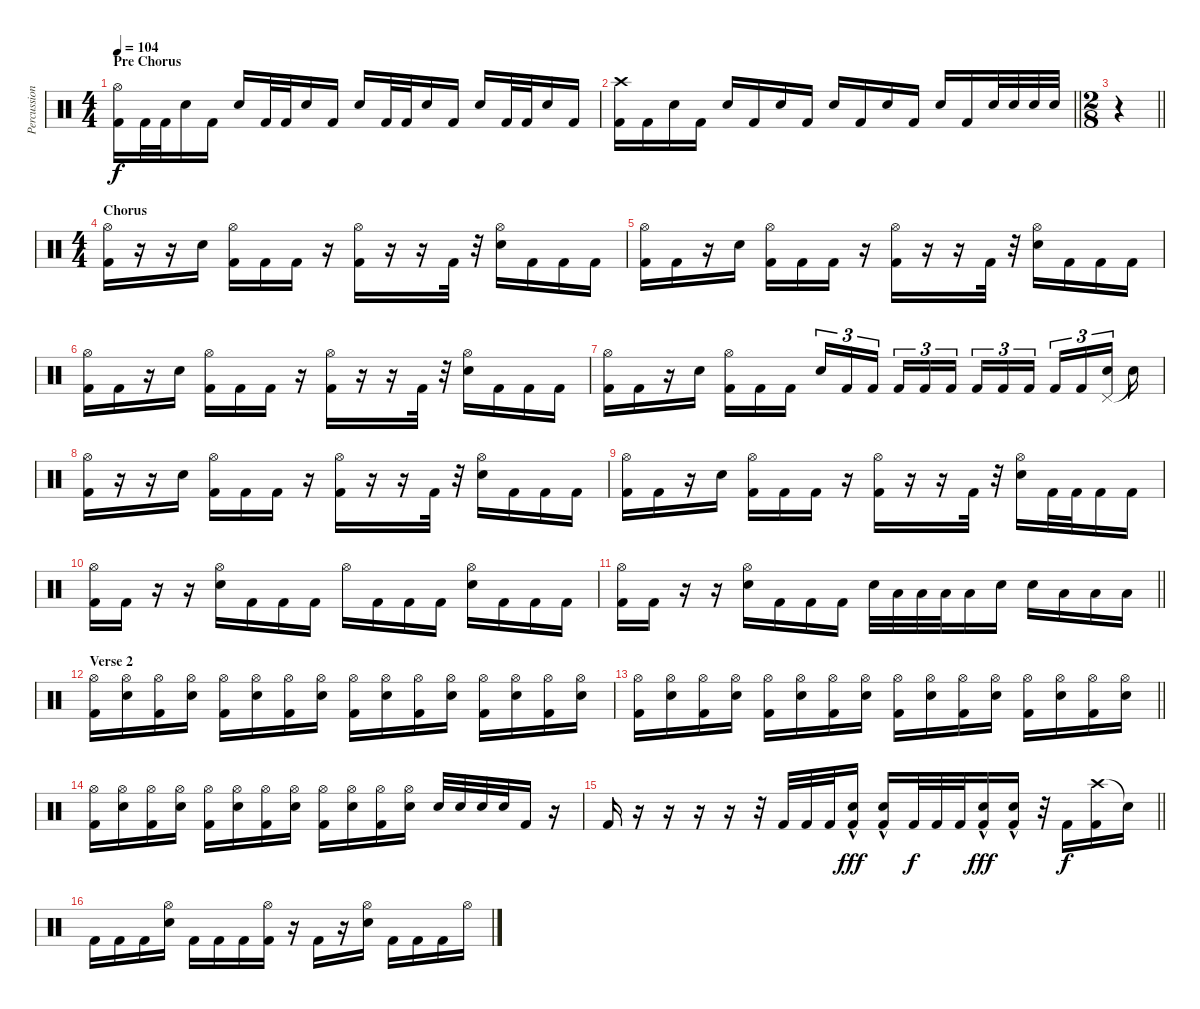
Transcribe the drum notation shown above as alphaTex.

\track ("Percussion" "Percussion") {instrument percussion}
\staff {score}
\articulation defaults
\ts (4 4)
\section ("" "Pre Chorus")
\tempo 104
\clef neutral
\ks c
("Hi-Hat (open)" "Kick (hit) 2").16{dy f} "Kick (hit) 2".32 "Kick (hit) 2".32 "Snare (hit) 2".16 "Kick (hit) 2".16 "Snare (hit) 2".16 "Kick (hit) 2".32 "Kick (hit) 2".32 "Snare (hit) 2".16 "Kick (hit) 2".16 "Snare (hit) 2".16 "Kick (hit) 2".32 "Kick (hit) 2".32 "Snare (hit) 2".16 "Kick (hit) 2".16 "Snare (hit) 2".16 "Kick (hit) 2".32 "Kick (hit) 2".32 "Snare (hit) 2".16 "Kick (hit) 2".16 |
\barLineRight lightlight
("Crash high (hit)" "Kick (hit) 2").16 "Kick (hit) 2".16 "Snare (hit) 2".16 "Kick (hit) 2".16 "Snare (hit) 2".16 "Kick (hit) 2".16 "Snare (hit) 2".16 "Kick (hit) 2".16 "Snare (hit) 2".16 "Kick (hit) 2".16 "Snare (hit) 2".16 "Kick (hit) 2".16 "Snare (hit) 2".16 "Kick (hit) 2".16 "Snare (hit) 2".32 "Snare (hit) 2".32 "Snare (hit) 2".32 "Snare (hit) 2".32 |
\ts (2 8)
\barLineRight lightlight
r.4 |
\ts (4 4)
\section ("" "Chorus")
("Hi-Hat (open)" "Kick (hit) 2").16 r.16 r.16 "Snare (hit) 2".16 ("Hi-Hat (open)" "Kick (hit) 2").16 "Kick (hit) 2".16 "Kick (hit) 2".16 r.16 ("Hi-Hat (open)" "Kick (hit) 2").16 r.16 r.16 "Kick (hit) 2".32 r.32 ("Hi-Hat (open)" "Snare (hit) 2").16 "Kick (hit) 2".16 "Kick (hit) 2".16 "Kick (hit) 2".16 |
("Hi-Hat (open)" "Kick (hit) 2").16 "Kick (hit) 2".16 r.16 "Snare (hit) 2".16 ("Hi-Hat (open)" "Kick (hit) 2").16 "Kick (hit) 2".16 "Kick (hit) 2".16 r.16 ("Hi-Hat (open)" "Kick (hit) 2").16 r.16 r.16 "Kick (hit) 2".32 r.32 ("Hi-Hat (open)" "Snare (hit) 2").16 "Kick (hit) 2".16 "Kick (hit) 2".16 "Kick (hit) 2".16 |
("Hi-Hat (open)" "Kick (hit) 2").16 "Kick (hit) 2".16 r.16 "Snare (hit) 2".16 ("Hi-Hat (open)" "Kick (hit) 2").16 "Kick (hit) 2".16 "Kick (hit) 2".16 r.16 ("Hi-Hat (open)" "Kick (hit) 2").16 r.16 r.16 "Kick (hit) 2".32 r.32 ("Hi-Hat (open)" "Snare (hit) 2").16 "Kick (hit) 2".16 "Kick (hit) 2".16 "Kick (hit) 2".16 |
("Hi-Hat (open)" "Kick (hit) 2").16 "Kick (hit) 2".16 r.16 "Snare (hit) 2".16 ("Hi-Hat (open)" "Kick (hit) 2").16 "Kick (hit) 2".16 "Kick (hit) 2".16{beam splitsecondary} "Snare (hit) 2".16{tu (3 2)} "Kick (hit) 2".16{tu (3 2)} "Kick (hit) 2".16{tu (3 2) beam splitsecondary} "Kick (hit) 2".16{tu (3 2)} "Kick (hit) 2".16{tu (3 2)} "Kick (hit) 2".16{tu (3 2) beam splitsecondary} "Kick (hit) 2".16{tu (3 2)} "Kick (hit) 2".16{tu (3 2)} "Kick (hit) 2".16{tu (3 2) beam splitsecondary} "Kick (hit) 2".16{tu (3 2)} "Kick (hit) 2".16{tu (3 2)} ("Pedal Hi-Hat (hit)" "Snare (hit) 2").16{tu (3 2) beam splitsecondary} "Snare (hit)"{t}.16 |
("Hi-Hat (open)" "Kick (hit) 2").16 r.16 r.16 "Snare (hit) 2".16 ("Hi-Hat (open)" "Kick (hit) 2").16 "Kick (hit) 2".16 "Kick (hit) 2".16 r.16 ("Hi-Hat (open)" "Kick (hit) 2").16 r.16 r.16 "Kick (hit) 2".32 r.32 ("Hi-Hat (open)" "Snare (hit) 2").16 "Kick (hit) 2".16 "Kick (hit) 2".16 "Kick (hit) 2".16 |
("Hi-Hat (open)" "Kick (hit) 2").16 "Kick (hit) 2".16 r.16 "Snare (hit) 2".16 ("Hi-Hat (open)" "Kick (hit) 2").16 "Kick (hit) 2".16 "Kick (hit) 2".16 r.16 ("Hi-Hat (open)" "Kick (hit) 2").16 r.16 r.16 "Kick (hit) 2".32 r.32 ("Hi-Hat (open)" "Snare (hit) 2").16 "Kick (hit) 2".32 "Kick (hit) 2".32 "Kick (hit) 2".16 "Kick (hit) 2".16 |
("Hi-Hat (open)" "Kick (hit) 2").16 "Kick (hit) 2".16 r.16 r.16 ("Hi-Hat (open)" "Snare (hit) 2").16 "Kick (hit) 2".16 "Kick (hit) 2".16 "Kick (hit) 2".16 "Hi-Hat (open)".16 "Kick (hit) 2".16 "Kick (hit) 2".16 "Kick (hit) 2".16 ("Hi-Hat (open)" "Snare (hit) 2").16 "Kick (hit) 2".16 "Kick (hit) 2".16 "Kick (hit) 2".16 |
\barLineRight lightlight
("Hi-Hat (open)" "Kick (hit) 2").16 "Kick (hit) 2".16 r.16 r.16 ("Hi-Hat (open)" "Snare (hit) 2").16 "Kick (hit) 2".16 "Kick (hit) 2".16 "Kick (hit) 2".16 "Snare (hit) 2".32 "Low Tom (hit)".32 "Low Tom (hit)".32 "Low Tom (hit)".32 "Low Tom (hit)".16 "Snare (hit) 2".16 "Snare (hit) 2".16 "Low Tom (hit)".16 "Low Tom (hit)".16 "Low Tom (hit)".16 |
\section ("" "Verse 2")
("Hi-Hat (open)" "Kick (hit) 2").16 ("Hi-Hat (open)" "Snare (hit) 2").16 ("Hi-Hat (open)" "Kick (hit) 2").16 ("Hi-Hat (open)" "Snare (hit) 2").16 ("Hi-Hat (open)" "Kick (hit) 2").16 ("Hi-Hat (open)" "Snare (hit) 2").16 ("Hi-Hat (open)" "Kick (hit) 2").16 ("Hi-Hat (open)" "Snare (hit) 2").16 ("Hi-Hat (open)" "Kick (hit) 2").16 ("Hi-Hat (open)" "Snare (hit) 2").16 ("Hi-Hat (open)" "Kick (hit) 2").16 ("Hi-Hat (open)" "Snare (hit) 2").16 ("Hi-Hat (open)" "Kick (hit) 2").16 ("Hi-Hat (open)" "Snare (hit) 2").16 ("Hi-Hat (open)" "Kick (hit) 2").16 ("Hi-Hat (open)" "Snare (hit) 2").16 |
\barLineRight lightlight
("Hi-Hat (open)" "Kick (hit) 2").16 ("Hi-Hat (open)" "Snare (hit) 2").16 ("Hi-Hat (open)" "Kick (hit) 2").16 ("Hi-Hat (open)" "Snare (hit) 2").16 ("Hi-Hat (open)" "Kick (hit) 2").16 ("Hi-Hat (open)" "Snare (hit) 2").16 ("Hi-Hat (open)" "Kick (hit) 2").16 ("Hi-Hat (open)" "Snare (hit) 2").16 ("Hi-Hat (open)" "Kick (hit) 2").16 ("Hi-Hat (open)" "Snare (hit) 2").16 ("Hi-Hat (open)" "Kick (hit) 2").16 ("Hi-Hat (open)" "Snare (hit) 2").16 ("Hi-Hat (open)" "Kick (hit) 2").16 ("Hi-Hat (open)" "Snare (hit) 2").16 ("Hi-Hat (open)" "Kick (hit) 2").16 ("Hi-Hat (open)" "Snare (hit) 2").16 |
("Hi-Hat (open)" "Kick (hit) 2").16 ("Hi-Hat (open)" "Snare (hit) 2").16 ("Hi-Hat (open)" "Kick (hit) 2").16 ("Hi-Hat (open)" "Snare (hit) 2").16 ("Hi-Hat (open)" "Kick (hit) 2").16 ("Hi-Hat (open)" "Snare (hit) 2").16 ("Hi-Hat (open)" "Kick (hit) 2").16 ("Hi-Hat (open)" "Snare (hit) 2").16 ("Hi-Hat (open)" "Kick (hit) 2").16 ("Hi-Hat (open)" "Snare (hit) 2").16 ("Hi-Hat (open)" "Kick (hit) 2").16 ("Hi-Hat (open)" "Snare (hit) 2").16 "Snare (hit) 2".32 "Snare (hit) 2".32 "Snare (hit) 2".32 "Snare (hit) 2".32 "Kick (hit) 2".16 r.16 |
\barLineRight lightlight "Kick (hit) 2".16
r.16 r.16 r.16 r.16 r.32 "Kick (hit) 2".32 "Kick (hit) 2".32 "Kick (hit) 2".32 ("Snare (hit) 2" "Kick (hit) 2"{hac}).16{dy fff} ("Snare (hit) 2" "Kick (hit) 2"{hac}).16 "Kick (hit) 2".32{dy f} "Kick (hit) 2".32 "Kick (hit) 2".32 ("Snare (hit) 2" "Kick (hit) 2"{hac}).16{dy fff} ("Snare (hit) 2" "Kick (hit) 2"{hac}).16 r.32 "Kick (hit) 2".16{dy f} ("Crash high (hit)" "Kick (hit) 2").16 "Snare (hit)"{t}.16 |
"Kick (hit) 2".16 "Kick (hit) 2".16 "Kick (hit) 2".16 ("Hi-Hat (open)" "Snare (hit) 2").16 "Kick (hit) 2".16 "Kick (hit) 2".16 "Kick (hit) 2".16 ("Hi-Hat (open)" "Kick (hit) 2").16 r.16 "Kick (hit) 2".16 r.16 ("Hi-Hat (open)" "Snare (hit) 2").16 "Kick (hit) 2".16 "Kick (hit) 2".16 "Kick (hit) 2".16 "Hi-Hat (open)".16
